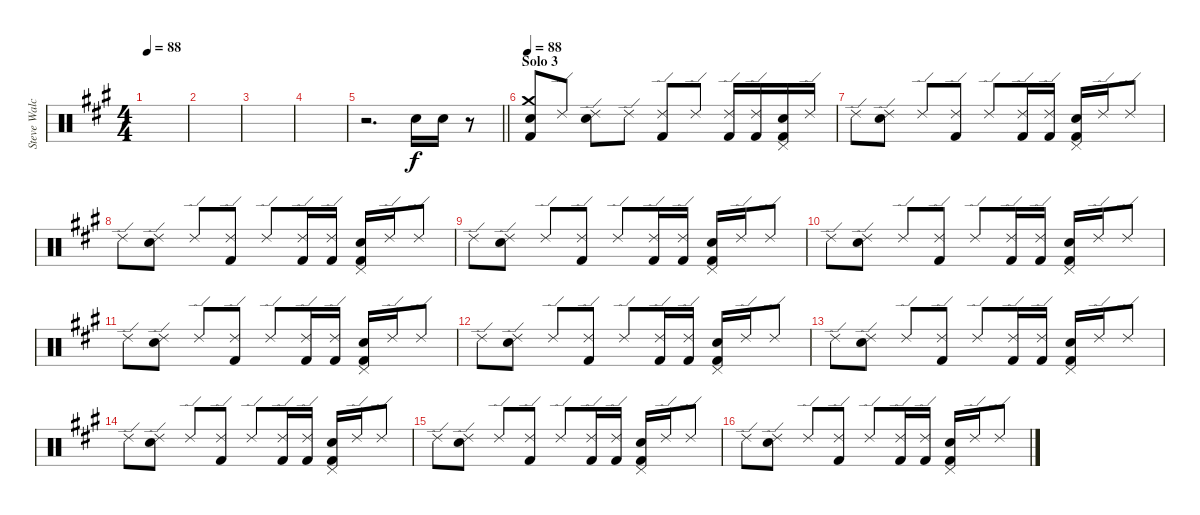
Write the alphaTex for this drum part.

\track ("Steve Walchoz" "Steve Walc") {instrument percussion}
\staff {score}
\articulation defaults
\ts (4 4)
\tempo 88
\clef neutral
\ks a
|
|
|
|
\barLineRight lightlight
r.2{d} "Snare (hit) 2".16 "Snare (hit) 2".16 r.8 |
\section ("" "Solo 3")
\tempo 88
("Crash medium (hit)" "Snare (hit) 2" "Kick (hit) 2").8 "Ride (edge) 2".8 ("Ride (edge) 2" "Snare (hit) 2").8 "Ride (edge) 2".8 ("Ride (edge) 2" "Kick (hit) 2").8 "Ride (edge) 2".8 ("Ride (edge) 2" "Kick (hit) 2").16 ("Ride (edge) 2" "Kick (hit) 2").16 ("Pedal Hi-Hat (hit)" "Snare (hit) 2" "Kick (hit) 2").16 "Ride (edge) 2".16 |
"Ride (edge) 2".8 ("Ride (edge) 2" "Snare (hit) 2").8 "Ride (edge) 2".8 ("Ride (edge) 2" "Kick (hit) 2").8 "Ride (edge) 2".8 ("Ride (edge) 2" "Kick (hit) 2").16 ("Ride (edge) 2" "Kick (hit) 2").16 ("Pedal Hi-Hat (hit)" "Snare (hit) 2" "Kick (hit) 2").16 "Ride (edge) 2".16 "Ride (edge) 2".8 |
"Ride (edge) 2".8 ("Ride (edge) 2" "Snare (hit) 2").8 "Ride (edge) 2".8 ("Ride (edge) 2" "Kick (hit) 2").8 "Ride (edge) 2".8 ("Ride (edge) 2" "Kick (hit) 2").16 ("Ride (edge) 2" "Kick (hit) 2").16 ("Pedal Hi-Hat (hit)" "Snare (hit) 2" "Kick (hit) 2").16 "Ride (edge) 2".16 "Ride (edge) 2".8 |
"Ride (edge) 2".8 ("Ride (edge) 2" "Snare (hit) 2").8 "Ride (edge) 2".8 ("Ride (edge) 2" "Kick (hit) 2").8 "Ride (edge) 2".8 ("Ride (edge) 2" "Kick (hit) 2").16 ("Ride (edge) 2" "Kick (hit) 2").16 ("Pedal Hi-Hat (hit)" "Snare (hit) 2" "Kick (hit) 2").16 "Ride (edge) 2".16 "Ride (edge) 2".8 |
"Ride (edge) 2".8 ("Ride (edge) 2" "Snare (hit) 2").8 "Ride (edge) 2".8 ("Ride (edge) 2" "Kick (hit) 2").8 "Ride (edge) 2".8 ("Ride (edge) 2" "Kick (hit) 2").16 ("Ride (edge) 2" "Kick (hit) 2").16 ("Pedal Hi-Hat (hit)" "Snare (hit) 2" "Kick (hit) 2").16 "Ride (edge) 2".16 "Ride (edge) 2".8 |
"Ride (edge) 2".8 ("Ride (edge) 2" "Snare (hit) 2").8 "Ride (edge) 2".8 ("Ride (edge) 2" "Kick (hit) 2").8 "Ride (edge) 2".8 ("Ride (edge) 2" "Kick (hit) 2").16 ("Ride (edge) 2" "Kick (hit) 2").16 ("Pedal Hi-Hat (hit)" "Snare (hit) 2" "Kick (hit) 2").16 "Ride (edge) 2".16 "Ride (edge) 2".8 |
"Ride (edge) 2".8 ("Ride (edge) 2" "Snare (hit) 2").8 "Ride (edge) 2".8 ("Ride (edge) 2" "Kick (hit) 2").8 "Ride (edge) 2".8 ("Ride (edge) 2" "Kick (hit) 2").16 ("Ride (edge) 2" "Kick (hit) 2").16 ("Pedal Hi-Hat (hit)" "Snare (hit) 2" "Kick (hit) 2").16 "Ride (edge) 2".16 "Ride (edge) 2".8 |
"Ride (edge) 2".8 ("Ride (edge) 2" "Snare (hit) 2").8 "Ride (edge) 2".8 ("Ride (edge) 2" "Kick (hit) 2").8 "Ride (edge) 2".8 ("Ride (edge) 2" "Kick (hit) 2").16 ("Ride (edge) 2" "Kick (hit) 2").16 ("Pedal Hi-Hat (hit)" "Snare (hit) 2" "Kick (hit) 2").16 "Ride (edge) 2".16 "Ride (edge) 2".8 |
"Ride (edge) 2".8 ("Ride (edge) 2" "Snare (hit) 2").8 "Ride (edge) 2".8 ("Ride (edge) 2" "Kick (hit) 2").8 "Ride (edge) 2".8 ("Ride (edge) 2" "Kick (hit) 2").16 ("Ride (edge) 2" "Kick (hit) 2").16 ("Pedal Hi-Hat (hit)" "Snare (hit) 2" "Kick (hit) 2").16 "Ride (edge) 2".16 "Ride (edge) 2".8 |
"Ride (edge) 2".8 ("Ride (edge) 2" "Snare (hit) 2").8 "Ride (edge) 2".8 ("Ride (edge) 2" "Kick (hit) 2").8 "Ride (edge) 2".8 ("Ride (edge) 2" "Kick (hit) 2").16 ("Ride (edge) 2" "Kick (hit) 2").16 ("Pedal Hi-Hat (hit)" "Snare (hit) 2" "Kick (hit) 2").16 "Ride (edge) 2".16 "Ride (edge) 2".8 |
"Ride (edge) 2".8 ("Ride (edge) 2" "Snare (hit) 2").8 "Ride (edge) 2".8 ("Ride (edge) 2" "Kick (hit) 2").8 "Ride (edge) 2".8 ("Ride (edge) 2" "Kick (hit) 2").16 ("Ride (edge) 2" "Kick (hit) 2").16 ("Pedal Hi-Hat (hit)" "Snare (hit) 2" "Kick (hit) 2").16 "Ride (edge) 2".16 "Ride (edge) 2".8
